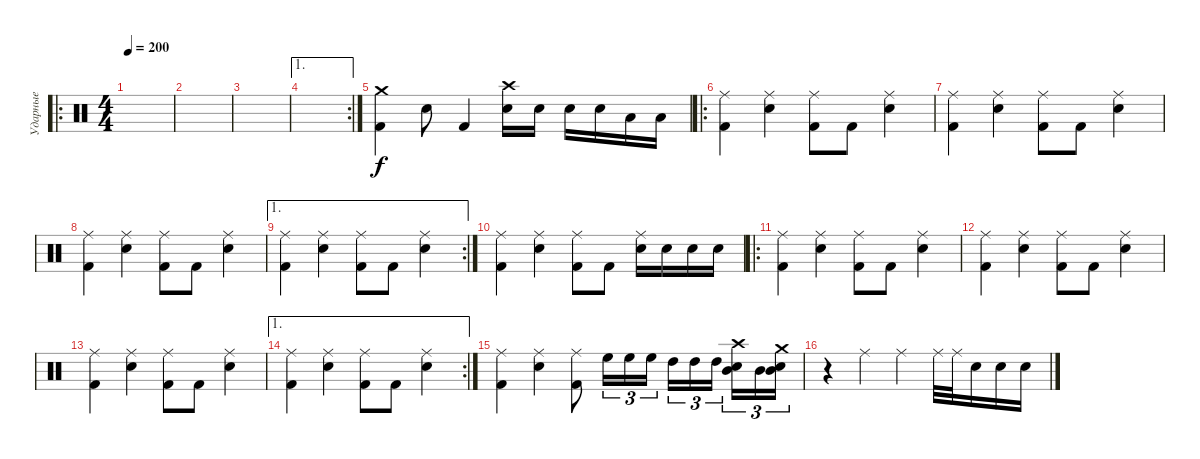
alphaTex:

\track ("Ударные" "Ударные") {instrument percussion}
\staff {score}
\articulation defaults
\ro
\ts (4 4)
\tempo 200
\clef neutral
\ks c
|
|
|
\ae 1
\rc 2
|
("Crash medium (hit)" "Kick (hit) 2").4 "Snare (hit) 2".8 "Kick (hit) 2".4 ("Crash high (hit)" "Snare (hit) 2").16 "Snare (hit) 2".16 "Snare (hit) 2".16 "Snare (hit) 2".16 "Low Floor Tom (hit)".16 "Low Floor Tom (hit)".16 |
\ro
("Ride (middle)" "Kick (hit) 2").4 ("Ride (middle)" "Snare (hit) 2").4 ("Ride (middle)" "Kick (hit) 2").8 "Kick (hit) 2".8 ("Ride (middle)" "Snare (hit) 2").4 |
("Ride (middle)" "Kick (hit) 2").4 ("Ride (middle)" "Snare (hit) 2").4 ("Ride (middle)" "Kick (hit) 2").8 "Kick (hit) 2".8 ("Ride (middle)" "Snare (hit) 2").4 |
("Ride (middle)" "Kick (hit) 2").4 ("Ride (middle)" "Snare (hit) 2").4 ("Ride (middle)" "Kick (hit) 2").8 "Kick (hit) 2".8 ("Ride (middle)" "Snare (hit) 2").4 |
\ae 1
\rc 2
("Ride (middle)" "Kick (hit) 2").4 ("Ride (middle)" "Snare (hit) 2").4 ("Ride (middle)" "Kick (hit) 2").8 "Kick (hit) 2".8 ("Ride (middle)" "Snare (hit) 2").4 |
("Ride (middle)" "Kick (hit) 2").4 ("Ride (middle)" "Snare (hit) 2").4 ("Ride (middle)" "Kick (hit) 2").8 "Kick (hit) 2".8 ("Ride (middle)" "Snare (hit) 2").16 "Snare (hit) 2".16 "Snare (hit) 2".16 "Snare (hit) 2".16 |
\ro
("Ride (middle)" "Kick (hit) 2").4 ("Ride (middle)" "Snare (hit) 2").4 ("Ride (middle)" "Kick (hit) 2").8 "Kick (hit) 2".8 ("Ride (middle)" "Snare (hit) 2").4 |
("Ride (middle)" "Kick (hit) 2").4 ("Ride (middle)" "Snare (hit) 2").4 ("Ride (middle)" "Kick (hit) 2").8 "Kick (hit) 2".8 ("Ride (middle)" "Snare (hit) 2").4 |
("Ride (middle)" "Kick (hit) 2").4 ("Ride (middle)" "Snare (hit) 2").4 ("Ride (middle)" "Kick (hit) 2").8 "Kick (hit) 2".8 ("Ride (middle)" "Snare (hit) 2").4 |
\ae 1
\rc 2
("Ride (middle)" "Kick (hit) 2").4 ("Ride (middle)" "Snare (hit) 2").4 ("Ride (middle)" "Kick (hit) 2").8 "Kick (hit) 2".8 ("Ride (middle)" "Snare (hit) 2").4 |
("Ride (middle)" "Kick (hit) 2").4 ("Ride (middle)" "Snare (hit) 2").4 ("Ride (middle)" "Kick (hit) 2").8 "High Floor Tom (hit)".16{tu (3 2)} "High Floor Tom (hit)".16{tu (3 2)} "High Floor Tom (hit)".16{tu (3 2)} "High Tom (hit)".16{tu (3 2)} "High Tom (hit)".16{tu (3 2)} "High Tom (hit)".16{tu (3 2)} ("Mid Tom (hit)" "Snare (hit) 2" "Crash high (hit)").16{tu (3 2)} "Mid Tom (hit)".16{tu (3 2)} ("Mid Tom (hit)" "Snare (hit) 2" "Crash medium (hit)").16{tu (3 2)} |
r.4 "Ride (middle)".4 "Ride (middle)".4 "Ride (middle)".32 "Ride (middle)".32 "Snare (hit) 2".16 "Snare (hit) 2".16 "Snare (hit) 2".16
